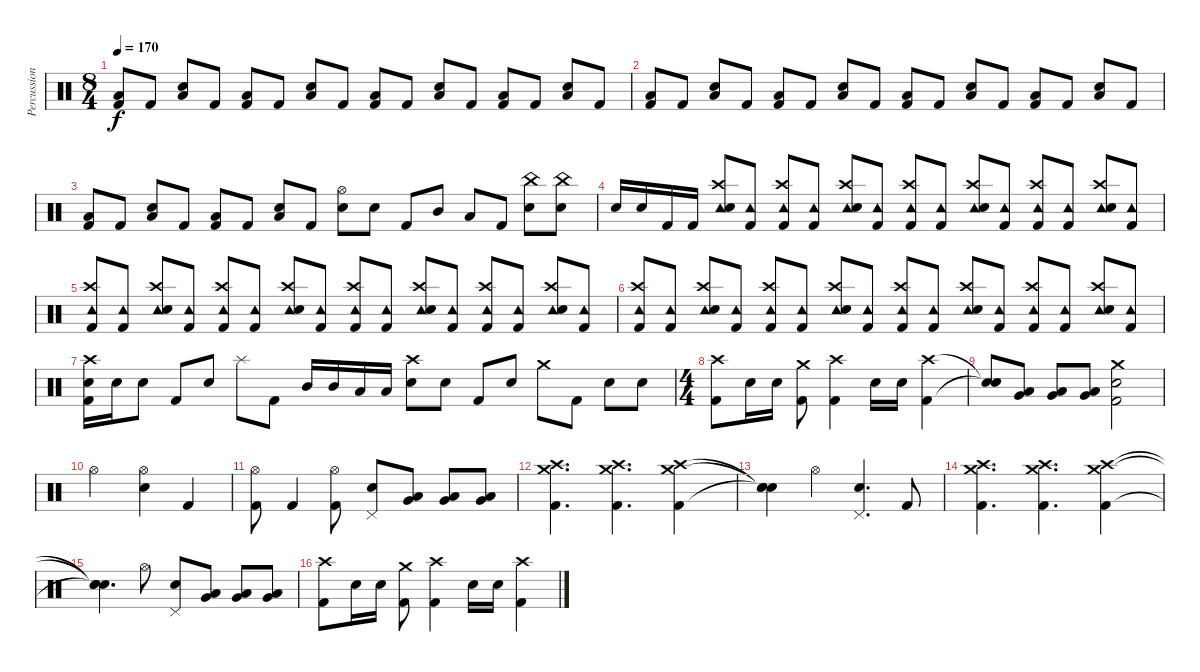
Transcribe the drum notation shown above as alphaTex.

\track ("Percussion" "Percussion") {instrument percussion}
\staff {score}
\articulation defaults
\ts (8 4)
\tempo 170
\clef neutral
\ks c
("Low Tom (hit)" "Kick (hit) 2").8{dy f} "Kick (hit) 2".8 ("Low Tom (hit)" "Snare (hit) 2").8 "Kick (hit) 2".8 ("Low Tom (hit)" "Kick (hit) 2").8 "Kick (hit) 2".8 ("Low Tom (hit)" "Snare (hit) 2").8 "Kick (hit) 2".8 ("Low Tom (hit)" "Kick (hit) 2").8 "Kick (hit) 2".8 ("Low Tom (hit)" "Snare (hit) 2").8 "Kick (hit) 2".8 ("Low Tom (hit)" "Kick (hit) 2").8 "Kick (hit) 2".8 ("Low Tom (hit)" "Snare (hit) 2").8 "Kick (hit) 2".8 |
("Low Tom (hit)" "Kick (hit) 2").8 "Kick (hit) 2".8 ("Low Tom (hit)" "Snare (hit) 2").8 "Kick (hit) 2".8 ("Low Tom (hit)" "Kick (hit) 2").8 "Kick (hit) 2".8 ("Low Tom (hit)" "Snare (hit) 2").8 "Kick (hit) 2".8 ("Low Tom (hit)" "Kick (hit) 2").8 "Kick (hit) 2".8 ("Low Tom (hit)" "Snare (hit) 2").8 "Kick (hit) 2".8 ("Low Tom (hit)" "Kick (hit) 2").8 "Kick (hit) 2".8 ("Low Tom (hit)" "Snare (hit) 2").8 "Kick (hit) 2".8 |
("Low Tom (hit)" "Kick (hit) 2").8 "Kick (hit) 2".8 ("Low Tom (hit)" "Snare (hit) 2").8 "Kick (hit) 2".8 ("Low Tom (hit)" "Kick (hit) 2").8 "Kick (hit) 2".8 ("Low Tom (hit)" "Snare (hit) 2").8 "Kick (hit) 2".8 ("Hi-Hat (open)" "Snare (hit) 2").8 "Snare (hit) 2".8 "Kick (hit) 2".8 "Mid Tom (hit)".8 "Low Tom (hit)".8 "Kick (hit) 2".8 ("China (hit)" "Snare (hit) 2").8 ("China (hit)" "Snare (hit) 2").8 |
"Snare (hit) 2".16 "Snare (hit) 2".16 "Kick (hit) 2".16 "Kick (hit) 2".16 ("Crash high (hit)" "Tambourine (hit)" "Snare (hit) 2").8 ("Tambourine (hit)" "Kick (hit) 2").8 ("Crash high (hit)" "Tambourine (hit)" "Kick (hit) 2").8 ("Tambourine (hit)" "Kick (hit) 2").8 ("Crash high (hit)" "Tambourine (hit)" "Snare (hit) 2").8 ("Tambourine (hit)" "Kick (hit) 2").8 ("Crash high (hit)" "Tambourine (hit)" "Kick (hit) 2").8 ("Tambourine (hit)" "Kick (hit) 2").8 ("Crash high (hit)" "Tambourine (hit)" "Snare (hit) 2").8 ("Tambourine (hit)" "Kick (hit) 2").8 ("Crash high (hit)" "Tambourine (hit)" "Kick (hit) 2").8 ("Tambourine (hit)" "Kick (hit) 2").8 ("Crash high (hit)" "Tambourine (hit)" "Snare (hit) 2").8 ("Tambourine (hit)" "Kick (hit) 2").8 |
("Crash high (hit)" "Tambourine (hit)" "Kick (hit) 2").8 ("Tambourine (hit)" "Kick (hit) 2").8 ("Crash high (hit)" "Tambourine (hit)" "Snare (hit) 2").8 ("Tambourine (hit)" "Kick (hit) 2").8 ("Crash high (hit)" "Tambourine (hit)" "Kick (hit) 2").8 ("Tambourine (hit)" "Kick (hit) 2").8 ("Crash high (hit)" "Tambourine (hit)" "Snare (hit) 2").8 ("Tambourine (hit)" "Kick (hit) 2").8 ("Crash high (hit)" "Tambourine (hit)" "Kick (hit) 2").8 ("Tambourine (hit)" "Kick (hit) 2").8 ("Crash high (hit)" "Tambourine (hit)" "Snare (hit) 2").8 ("Tambourine (hit)" "Kick (hit) 2").8 ("Crash high (hit)" "Tambourine (hit)" "Kick (hit) 2").8 ("Tambourine (hit)" "Kick (hit) 2").8 ("Crash high (hit)" "Tambourine (hit)" "Snare (hit) 2").8 ("Tambourine (hit)" "Kick (hit) 2").8 |
("Crash high (hit)" "Tambourine (hit)" "Kick (hit) 2").8 ("Tambourine (hit)" "Kick (hit) 2").8 ("Crash high (hit)" "Tambourine (hit)" "Snare (hit) 2").8 ("Tambourine (hit)" "Kick (hit) 2").8 ("Crash high (hit)" "Tambourine (hit)" "Kick (hit) 2").8 ("Tambourine (hit)" "Kick (hit) 2").8 ("Crash high (hit)" "Tambourine (hit)" "Snare (hit) 2").8 ("Tambourine (hit)" "Kick (hit) 2").8 ("Crash high (hit)" "Tambourine (hit)" "Kick (hit) 2").8 ("Tambourine (hit)" "Kick (hit) 2").8 ("Crash high (hit)" "Tambourine (hit)" "Snare (hit) 2").8 ("Tambourine (hit)" "Kick (hit) 2").8 ("Crash high (hit)" "Tambourine (hit)" "Kick (hit) 2").8 ("Tambourine (hit)" "Kick (hit) 2").8 ("Crash high (hit)" "Tambourine (hit)" "Snare (hit) 2").8 ("Tambourine (hit)" "Kick (hit) 2").8 |
("Crash high (hit)" "Snare (hit) 2" "Kick (hit) 2").16 "Snare (hit) 2".16 "Snare (hit) 2".8 "Kick (hit) 2".8 "Snare (hit) 2".8 "Splash (hit)".8 "Kick (hit) 2".8 "Mid Tom (hit)".16 "Mid Tom (hit)".16 "Low Tom (hit)".16 "Low Tom (hit)".16 ("Crash high (hit)" "Snare (hit) 2").8 "Snare (hit) 2".8 "Kick (hit) 2".8 "Snare (hit) 2".8 "Crash medium (hit)".8 "Kick (hit) 2".8 "Snare (hit) 2".8 "Snare (hit) 2".8 |
\ts (4 4)
("Crash high (hit)" "Kick (hit) 2").8 "Snare (hit) 2".16 "Snare (hit) 2".16 ("Crash medium (hit)" "Kick (hit) 2").8 ("Crash high (hit)" "Kick (hit) 2").4 "Snare (hit) 2".16 "Snare (hit) 2".16 ("Crash high (hit)" "Kick (hit) 2").4 |
("Snare (hit)"{t} "Snare (hit)"{t}).8 ("Low Tom (hit)" "Very Low Tom (hit)").8 ("Low Tom (hit)" "Very Low Tom (hit)").8 ("Low Tom (hit)" "Very Low Tom (hit)").8 ("Crash medium (hit)" "Snare (hit) 2" "Kick (hit) 2").2 |
"Hi-Hat (open)".2 ("Hi-Hat (open)" "Snare (hit) 2").4 "Kick (hit) 2".4 |
("Hi-Hat (open)" "Kick (hit) 2").8 "Kick (hit) 2".4 ("Hi-Hat (open)" "Kick (hit) 2").8 ("Pedal Hi-Hat (hit)" "Snare (hit) 2").8 ("Very Low Tom (hit)" "Low Tom (hit)").8 ("Very Low Tom (hit)" "Low Tom (hit)").8 ("Very Low Tom (hit)" "Low Tom (hit)").8 |
("Crash high (hit)" "Crash medium (hit)" "Kick (hit) 2").4{d} ("Crash high (hit)" "Crash medium (hit)" "Kick (hit) 2").4{d} ("Crash high (hit)" "Crash medium (hit)" "Kick (hit) 2").4 |
("Snare (hit)"{t} "Snare (hit)"{t} "Snare (hit)"{t}).4 "Hi-Hat (open)".4 ("Pedal Hi-Hat (hit)" "Snare (hit) 2").4{d} "Kick (hit) 2".8 |
("Crash high (hit)" "Crash medium (hit)" "Kick (hit) 2").4{d} ("Crash high (hit)" "Crash medium (hit)" "Kick (hit) 2").4{d} ("Crash high (hit)" "Crash medium (hit)" "Kick (hit) 2").4 |
("Snare (hit)"{t} "Snare (hit)"{t} "Snare (hit)"{t}).4{d} "Hi-Hat (open)".8 ("Pedal Hi-Hat (hit)" "Snare (hit) 2").8 ("Very Low Tom (hit)" "Low Tom (hit)").8 ("Very Low Tom (hit)" "Low Tom (hit)").8 ("Very Low Tom (hit)" "Low Tom (hit)").8 |
("Crash high (hit)" "Kick (hit) 2").8 "Snare (hit) 2".16 "Snare (hit) 2".16 ("Crash medium (hit)" "Kick (hit) 2").8 ("Crash high (hit)" "Kick (hit) 2").4 "Snare (hit) 2".16 "Snare (hit) 2".16 ("Crash high (hit)" "Kick (hit) 2").4
